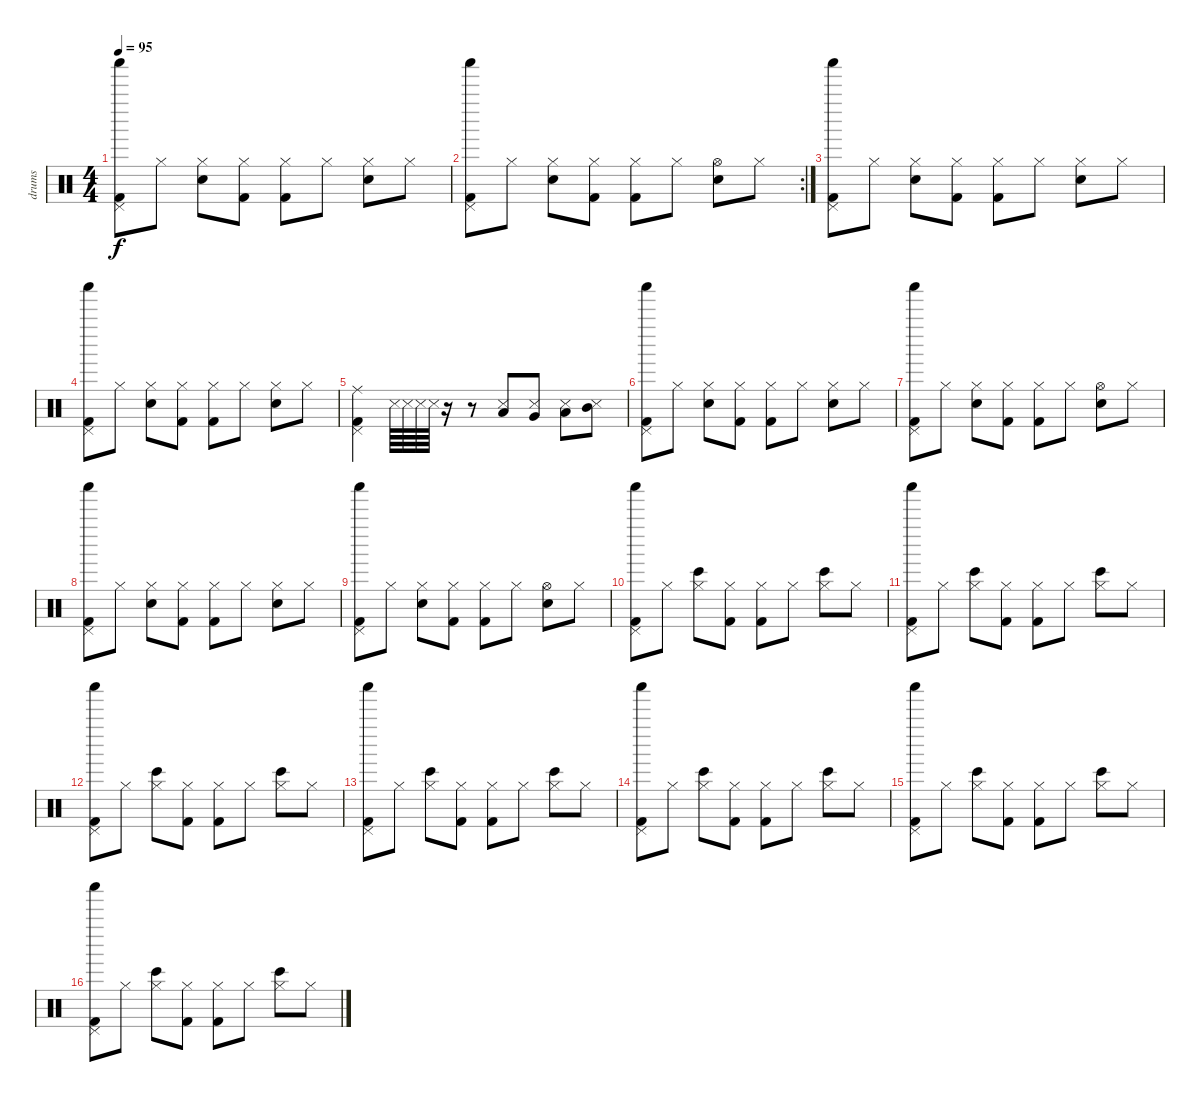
\track ("drums" "drums") {instrument percussion}
\staff {score}
\articulation defaults
\ts (4 4)
\tempo 95
\clef neutral
\ks c
("Kick (hit) 2" "Shaker (hit)" "Pedal Hi-Hat (hit)").8{dy f} "Hi-Hat (closed)".8 ("Snare (hit) 2" "Hi-Hat (closed)").8 ("Kick (hit) 2" "Hi-Hat (closed)").8 ("Kick (hit) 2" "Hi-Hat (closed)").8 "Hi-Hat (closed)".8 ("Snare (hit) 2" "Hi-Hat (closed)").8 "Hi-Hat (closed)".8 |
\rc 2
("Kick (hit) 2" "Shaker (hit)" "Pedal Hi-Hat (hit)").8 "Hi-Hat (closed)".8 ("Snare (hit) 2" "Hi-Hat (closed)").8 ("Kick (hit) 2" "Hi-Hat (closed)").8 ("Kick (hit) 2" "Hi-Hat (closed)").8 "Hi-Hat (closed)".8 ("Snare (hit) 2" "Hi-Hat (open)").8 "Hi-Hat (closed)".8 |
("Kick (hit) 2" "Shaker (hit)" "Pedal Hi-Hat (hit)").8 "Hi-Hat (closed)".8 ("Snare (hit) 2" "Hi-Hat (closed)").8 ("Kick (hit) 2" "Hi-Hat (closed)").8 ("Kick (hit) 2" "Hi-Hat (closed)").8 "Hi-Hat (closed)".8 ("Snare (hit) 2" "Hi-Hat (closed)").8 "Hi-Hat (closed)".8 |
("Kick (hit) 2" "Shaker (hit)" "Pedal Hi-Hat (hit)").8 "Hi-Hat (closed)".8 ("Snare (hit) 2" "Hi-Hat (closed)").8 ("Kick (hit) 2" "Hi-Hat (closed)").8 ("Kick (hit) 2" "Hi-Hat (closed)").8 "Hi-Hat (closed)".8 ("Snare (hit) 2" "Hi-Hat (closed)").8 "Hi-Hat (closed)".8 |
("Kick (hit) 2" "Ride (middle)" "Pedal Hi-Hat (hit)").4 "Metronome (hit)".64 "Metronome (hit)".64 "Metronome (hit)".64 "Metronome (hit)".64 r.16 r.8 ("Metronome (hit)" "Low Floor Tom (hit)").8 ("Metronome (hit)" "Very Low Tom (hit)").8 ("Metronome (hit)" "Low Tom (hit)").8 ("Mid Tom (hit)" "Metronome (hit)").8 |
("Kick (hit) 2" "Shaker (hit)" "Pedal Hi-Hat (hit)").8 "Hi-Hat (closed)".8 ("Snare (hit) 2" "Hi-Hat (closed)").8 ("Kick (hit) 2" "Hi-Hat (closed)").8 ("Kick (hit) 2" "Hi-Hat (closed)").8 "Hi-Hat (closed)".8 ("Snare (hit) 2" "Hi-Hat (closed)").8 "Hi-Hat (closed)".8 |
("Kick (hit) 2" "Shaker (hit)" "Pedal Hi-Hat (hit)").8 "Hi-Hat (closed)".8 ("Snare (hit) 2" "Hi-Hat (closed)").8 ("Kick (hit) 2" "Hi-Hat (closed)").8 ("Kick (hit) 2" "Hi-Hat (closed)").8 "Hi-Hat (closed)".8 ("Snare (hit) 2" "Hi-Hat (open)").8 "Hi-Hat (closed)".8 |
("Kick (hit) 2" "Shaker (hit)" "Pedal Hi-Hat (hit)").8 "Hi-Hat (closed)".8 ("Snare (hit) 2" "Hi-Hat (closed)").8 ("Kick (hit) 2" "Hi-Hat (closed)").8 ("Kick (hit) 2" "Hi-Hat (closed)").8 "Hi-Hat (closed)".8 ("Snare (hit) 2" "Hi-Hat (closed)").8 "Hi-Hat (closed)".8 |
("Kick (hit) 2" "Shaker (hit)" "Pedal Hi-Hat (hit)").8 "Hi-Hat (closed)".8 ("Snare (hit) 2" "Hi-Hat (closed)").8 ("Kick (hit) 2" "Hi-Hat (closed)").8 ("Kick (hit) 2" "Hi-Hat (closed)").8 "Hi-Hat (closed)".8 ("Snare (hit) 2" "Hi-Hat (open)").8 "Hi-Hat (closed)".8 |
("Kick (hit) 2" "Shaker (hit)" "Pedal Hi-Hat (hit)").8 "Hi-Hat (closed)".8 ("Bongo High (hit)" "Hi-Hat (closed)").8 ("Kick (hit) 2" "Hi-Hat (closed)").8 ("Kick (hit) 2" "Hi-Hat (closed)").8 "Hi-Hat (closed)".8 ("Bongo High (hit)" "Hi-Hat (closed)").8 "Hi-Hat (closed)".8 |
("Kick (hit) 2" "Shaker (hit)" "Pedal Hi-Hat (hit)").8 "Hi-Hat (closed)".8 ("Bongo High (hit)" "Hi-Hat (closed)").8 ("Kick (hit) 2" "Hi-Hat (closed)").8 ("Kick (hit) 2" "Hi-Hat (closed)").8 "Hi-Hat (closed)".8 ("Bongo High (hit)" "Hi-Hat (closed)").8 "Hi-Hat (closed)".8 |
("Kick (hit) 2" "Shaker (hit)" "Pedal Hi-Hat (hit)").8 "Hi-Hat (closed)".8 ("Bongo High (hit)" "Hi-Hat (closed)").8 ("Kick (hit) 2" "Hi-Hat (closed)").8 ("Kick (hit) 2" "Hi-Hat (closed)").8 "Hi-Hat (closed)".8 ("Bongo High (hit)" "Hi-Hat (closed)").8 "Hi-Hat (closed)".8 |
("Kick (hit) 2" "Shaker (hit)" "Pedal Hi-Hat (hit)").8 "Hi-Hat (closed)".8 ("Bongo High (hit)" "Hi-Hat (closed)").8 ("Kick (hit) 2" "Hi-Hat (closed)").8 ("Kick (hit) 2" "Hi-Hat (closed)").8 "Hi-Hat (closed)".8 ("Bongo High (hit)" "Hi-Hat (closed)").8 "Hi-Hat (closed)".8 |
("Kick (hit) 2" "Shaker (hit)" "Pedal Hi-Hat (hit)").8 "Hi-Hat (closed)".8 ("Bongo High (hit)" "Hi-Hat (closed)").8 ("Kick (hit) 2" "Hi-Hat (closed)").8 ("Kick (hit) 2" "Hi-Hat (closed)").8 "Hi-Hat (closed)".8 ("Bongo High (hit)" "Hi-Hat (closed)").8 "Hi-Hat (closed)".8 |
("Kick (hit) 2" "Shaker (hit)" "Pedal Hi-Hat (hit)").8 "Hi-Hat (closed)".8 ("Bongo High (hit)" "Hi-Hat (closed)").8 ("Kick (hit) 2" "Hi-Hat (closed)").8 ("Kick (hit) 2" "Hi-Hat (closed)").8 "Hi-Hat (closed)".8 ("Bongo High (hit)" "Hi-Hat (closed)").8 "Hi-Hat (closed)".8 |
("Kick (hit) 2" "Shaker (hit)" "Pedal Hi-Hat (hit)").8 "Hi-Hat (closed)".8 ("Bongo High (hit)" "Hi-Hat (closed)").8 ("Kick (hit) 2" "Hi-Hat (closed)").8 ("Kick (hit) 2" "Hi-Hat (closed)").8 "Hi-Hat (closed)".8 ("Bongo High (hit)" "Hi-Hat (closed)").8 "Hi-Hat (closed)".8
